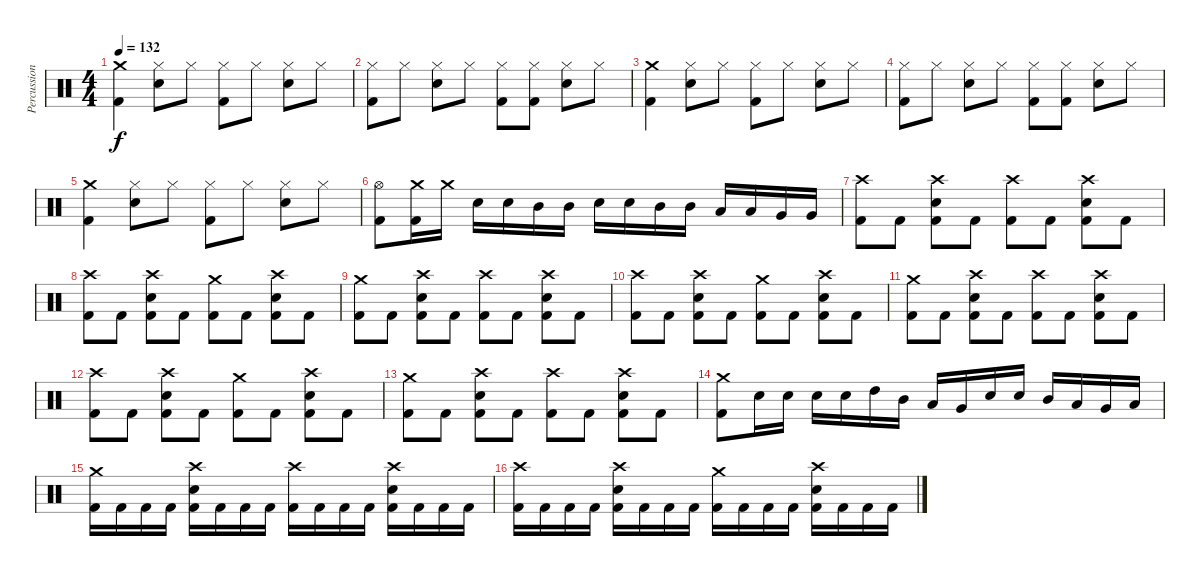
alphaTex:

\track ("Percussion" "Percussion") {instrument percussion}
\staff {score}
\articulation defaults
\ts (4 4)
\tempo 132
\clef neutral
\ks c
("Kick (hit) 2" "Crash medium (hit)").4{dy f} ("Snare (hit) 2" "Hi-Hat (closed)").8 "Hi-Hat (closed)".8 ("Kick (hit) 2" "Hi-Hat (closed)").8 "Hi-Hat (closed)".8 ("Snare (hit) 2" "Hi-Hat (closed)").8 "Hi-Hat (closed)".8 |
("Kick (hit) 2" "Hi-Hat (closed)").8 "Hi-Hat (closed)".8 ("Snare (hit) 2" "Hi-Hat (closed)").8 "Hi-Hat (closed)".8 ("Kick (hit) 2" "Hi-Hat (closed)").8 ("Kick (hit) 2" "Hi-Hat (closed)").8 ("Snare (hit) 2" "Hi-Hat (closed)").8 "Hi-Hat (closed)".8 |
("Kick (hit) 2" "Crash medium (hit)").4 ("Snare (hit) 2" "Hi-Hat (closed)").8 "Hi-Hat (closed)".8 ("Kick (hit) 2" "Hi-Hat (closed)").8 "Hi-Hat (closed)".8 ("Snare (hit) 2" "Hi-Hat (closed)").8 "Hi-Hat (closed)".8 |
("Kick (hit) 2" "Hi-Hat (closed)").8 "Hi-Hat (closed)".8 ("Snare (hit) 2" "Hi-Hat (closed)").8 "Hi-Hat (closed)".8 ("Kick (hit) 2" "Hi-Hat (closed)").8 ("Kick (hit) 2" "Hi-Hat (closed)").8 ("Snare (hit) 2" "Hi-Hat (closed)").8 "Hi-Hat (closed)".8 |
("Kick (hit) 2" "Crash medium (hit)").4 ("Snare (hit) 2" "Hi-Hat (closed)").8 "Hi-Hat (closed)".8 ("Kick (hit) 2" "Hi-Hat (closed)").8 "Hi-Hat (closed)".8 ("Snare (hit) 2" "Hi-Hat (closed)").8 "Hi-Hat (closed)".8 |
("Kick (hit) 2" "Hi-Hat (open)").8 ("Kick (hit) 2" "Crash medium (hit)").16 "Crash medium (hit)".16 "Snare (hit) 2".16 "Snare (hit) 2".16 "Mid Tom (hit)".16 "Mid Tom (hit)".16 "Snare (hit) 2".16 "Snare (hit) 2".16 "Mid Tom (hit)".16 "Mid Tom (hit)".16 "Low Tom (hit)".16 "Low Tom (hit)".16 "Very Low Tom (hit)".16 "Very Low Tom (hit)".16 |
("Kick (hit) 2" "Crash high (hit)").8 "Kick (hit) 2".8 ("Snare (hit) 2" "Kick (hit) 2" "Crash high (hit)").8 "Kick (hit) 2".8 ("Kick (hit) 2" "Crash high (hit)").8 "Kick (hit) 2".8 ("Snare (hit) 2" "Kick (hit) 2" "Crash high (hit)").8 "Kick (hit) 2".8 |
("Kick (hit) 2" "Crash high (hit)").8 "Kick (hit) 2".8 ("Snare (hit) 2" "Kick (hit) 2" "Crash high (hit)").8 "Kick (hit) 2".8 ("Kick (hit) 2" "Crash medium (hit)").8 "Kick (hit) 2".8 ("Snare (hit) 2" "Kick (hit) 2" "Crash high (hit)").8 "Kick (hit) 2".8 |
("Kick (hit) 2" "Crash medium (hit)").8 "Kick (hit) 2".8 ("Snare (hit) 2" "Kick (hit) 2" "Crash high (hit)").8 "Kick (hit) 2".8 ("Kick (hit) 2" "Crash high (hit)").8 "Kick (hit) 2".8 ("Snare (hit) 2" "Kick (hit) 2" "Crash high (hit)").8 "Kick (hit) 2".8 |
("Kick (hit) 2" "Crash high (hit)").8 "Kick (hit) 2".8 ("Snare (hit) 2" "Kick (hit) 2" "Crash high (hit)").8 "Kick (hit) 2".8 ("Kick (hit) 2" "Crash medium (hit)").8 "Kick (hit) 2".8 ("Snare (hit) 2" "Kick (hit) 2" "Crash high (hit)").8 "Kick (hit) 2".8 |
("Kick (hit) 2" "Crash medium (hit)").8 "Kick (hit) 2".8 ("Snare (hit) 2" "Kick (hit) 2" "Crash high (hit)").8 "Kick (hit) 2".8 ("Kick (hit) 2" "Crash high (hit)").8 "Kick (hit) 2".8 ("Snare (hit) 2" "Kick (hit) 2" "Crash high (hit)").8 "Kick (hit) 2".8 |
("Kick (hit) 2" "Crash high (hit)").8 "Kick (hit) 2".8 ("Snare (hit) 2" "Kick (hit) 2" "Crash high (hit)").8 "Kick (hit) 2".8 ("Kick (hit) 2" "Crash medium (hit)").8 "Kick (hit) 2".8 ("Snare (hit) 2" "Kick (hit) 2" "Crash high (hit)").8 "Kick (hit) 2".8 |
("Kick (hit) 2" "Crash medium (hit)").8 "Kick (hit) 2".8 ("Snare (hit) 2" "Kick (hit) 2" "Crash high (hit)").8 "Kick (hit) 2".8 ("Kick (hit) 2" "Crash high (hit)").8 "Kick (hit) 2".8 ("Snare (hit) 2" "Kick (hit) 2" "Crash high (hit)").8 "Kick (hit) 2".8 |
("Kick (hit) 2" "Crash medium (hit)").8 "Snare (hit) 2".16 "Snare (hit) 2".16 "Snare (hit) 2".16 "Snare (hit) 2".16 "High Tom (hit)".16 "Mid Tom (hit)".16 "Low Tom (hit)".16 "Very Low Tom (hit)".16 "Snare (hit) 2".16 "Snare (hit) 2".16 "Mid Tom (hit)".16 "Low Tom (hit)".16 "Very Low Tom (hit)".16 "Low Floor Tom (hit)".16 |
("Kick (hit) 2" "Crash medium (hit)").16 "Kick (hit) 2".16 "Kick (hit) 2".16 "Kick (hit) 2".16 ("Snare (hit) 2" "Kick (hit) 2" "Crash high (hit)").16 "Kick (hit) 2".16 "Kick (hit) 2".16 "Kick (hit) 2".16 ("Kick (hit) 2" "Crash high (hit)").16 "Kick (hit) 2".16 "Kick (hit) 2".16 "Kick (hit) 2".16 ("Snare (hit) 2" "Kick (hit) 2" "Crash high (hit)").16 "Kick (hit) 2".16 "Kick (hit) 2".16 "Kick (hit) 2".16 |
("Kick (hit) 2" "Crash high (hit)").16 "Kick (hit) 2".16 "Kick (hit) 2".16 "Kick (hit) 2".16 ("Snare (hit) 2" "Kick (hit) 2" "Crash high (hit)").16 "Kick (hit) 2".16 "Kick (hit) 2".16 "Kick (hit) 2".16 ("Kick (hit) 2" "Crash medium (hit)").16 "Kick (hit) 2".16 "Kick (hit) 2".16 "Kick (hit) 2".16 ("Snare (hit) 2" "Kick (hit) 2" "Crash high (hit)").16 "Kick (hit) 2".16 "Kick (hit) 2".16 "Kick (hit) 2".16
